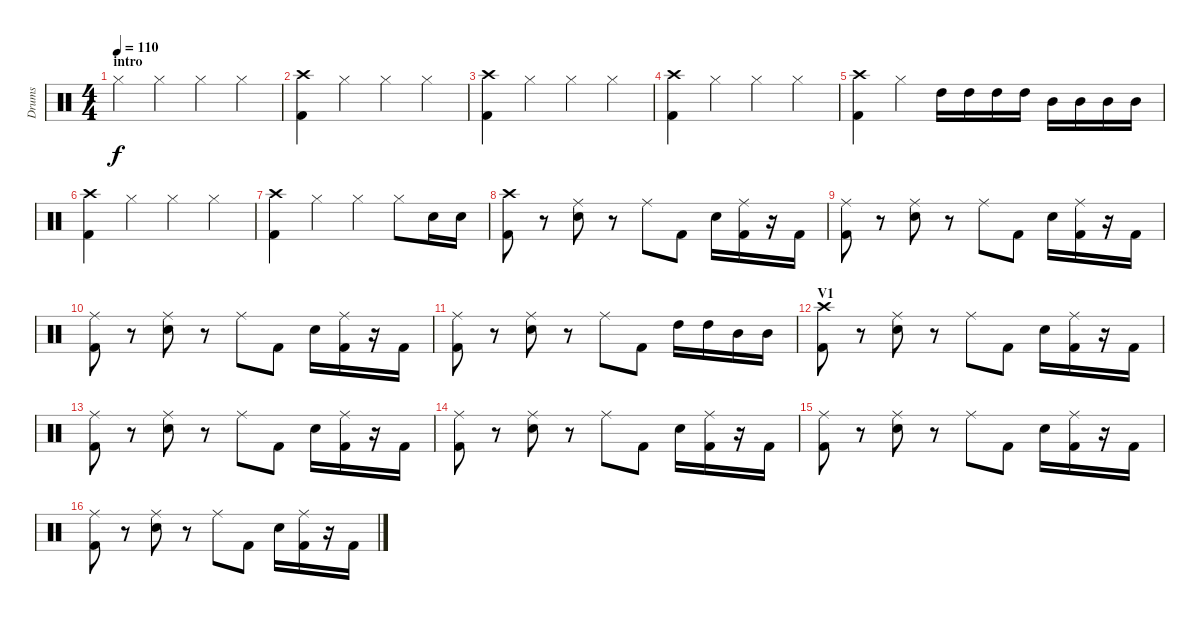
\track ("Drums" "Drums") {instrument percussion}
\staff {score}
\articulation defaults
\ts (4 4)
\section ("" "intro")
\tempo 110
\clef neutral
\ks c "Hi-Hat (closed)".4{dy f} "Hi-Hat (closed)".4 "Hi-Hat (closed)".4 "Hi-Hat (closed)".4
|
("Crash high (hit)" "Kick (hit) 2").4 "Hi-Hat (closed)".4 "Hi-Hat (closed)".4 "Hi-Hat (closed)".4 |
("Crash high (hit)" "Kick (hit) 2").4 "Hi-Hat (closed)".4 "Hi-Hat (closed)".4 "Hi-Hat (closed)".4 |
("Crash high (hit)" "Kick (hit) 2").4 "Hi-Hat (closed)".4 "Hi-Hat (closed)".4 "Hi-Hat (closed)".4 |
("Crash high (hit)" "Kick (hit) 2").4 "Hi-Hat (closed)".4 "High Tom (hit)".16 "High Tom (hit)".16 "High Tom (hit)".16 "High Tom (hit)".16 "Mid Tom (hit)".16 "Mid Tom (hit)".16 "Mid Tom (hit)".16 "Mid Tom (hit)".16 |
("Crash high (hit)" "Kick (hit) 2").4 "Hi-Hat (closed)".4 "Hi-Hat (closed)".4 "Hi-Hat (closed)".4 |
("Crash high (hit)" "Kick (hit) 2").4 "Hi-Hat (closed)".4 "Hi-Hat (closed)".4 "Hi-Hat (closed)".8 "Snare (hit) 2".16 "Snare (hit) 2".16 |
("Crash high (hit)" "Kick (hit) 2").8 r.8 ("Ride (middle)" "Snare (hit) 2").8 r.8 "Ride (middle)".8 "Kick (hit) 2".8 "Snare (hit) 2".16 ("Ride (middle)" "Kick (hit) 2").16 r.16 "Kick (hit) 2".16 |
("Ride (middle)" "Kick (hit) 2").8 r.8 ("Ride (middle)" "Snare (hit) 2").8 r.8 "Ride (middle)".8 "Kick (hit) 2".8 "Snare (hit) 2".16 ("Ride (middle)" "Kick (hit) 2").16 r.16 "Kick (hit) 2".16 |
("Ride (middle)" "Kick (hit) 2").8 r.8 ("Ride (middle)" "Snare (hit) 2").8 r.8 "Ride (middle)".8 "Kick (hit) 2".8 "Snare (hit) 2".16 ("Ride (middle)" "Kick (hit) 2").16 r.16 "Kick (hit) 2".16 |
("Ride (middle)" "Kick (hit) 2").8 r.8 ("Ride (middle)" "Snare (hit) 2").8 r.8 "Ride (middle)".8 "Kick (hit) 2".8 "High Tom (hit)".16 "High Tom (hit)".16 "Mid Tom (hit)".16 "Mid Tom (hit)".16 |
\section ("" "V1")
("Crash high (hit)" "Kick (hit) 2").8 r.8 ("Ride (middle)" "Snare (hit) 2").8 r.8 "Ride (middle)".8 "Kick (hit) 2".8 "Snare (hit) 2".16 ("Ride (middle)" "Kick (hit) 2").16 r.16 "Kick (hit) 2".16 |
("Ride (middle)" "Kick (hit) 2").8 r.8 ("Ride (middle)" "Snare (hit) 2").8 r.8 "Ride (middle)".8 "Kick (hit) 2".8 "Snare (hit) 2".16 ("Ride (middle)" "Kick (hit) 2").16 r.16 "Kick (hit) 2".16 |
("Ride (middle)" "Kick (hit) 2").8 r.8 ("Ride (middle)" "Snare (hit) 2").8 r.8 "Ride (middle)".8 "Kick (hit) 2".8 "Snare (hit) 2".16 ("Ride (middle)" "Kick (hit) 2").16 r.16 "Kick (hit) 2".16 |
("Ride (middle)" "Kick (hit) 2").8 r.8 ("Ride (middle)" "Snare (hit) 2").8 r.8 "Ride (middle)".8 "Kick (hit) 2".8 "Snare (hit) 2".16 ("Ride (middle)" "Kick (hit) 2").16 r.16 "Kick (hit) 2".16 |
("Ride (middle)" "Kick (hit) 2").8 r.8 ("Ride (middle)" "Snare (hit) 2").8 r.8 "Ride (middle)".8 "Kick (hit) 2".8 "Snare (hit) 2".16 ("Ride (middle)" "Kick (hit) 2").16 r.16 "Kick (hit) 2".16
